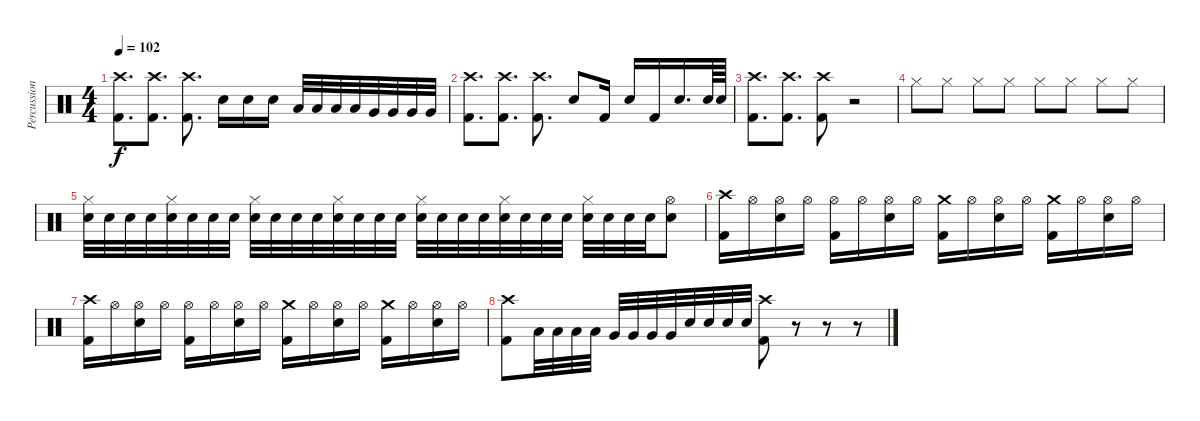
\track ("Percussion" "Percussion") {instrument percussion}
\staff {score}
\articulation defaults
\ts (4 4)
\tempo 102
\clef neutral
\ks c
("Crash high (hit)" "Kick (hit) 2").8{d dy f} ("Crash high (hit)" "Kick (hit) 2").8{d} ("Crash high (hit)" "Kick (hit) 2").8{d} "Snare (hit) 2".16 "Snare (hit) 2".16 "Snare (hit) 2".16 "Low Tom (hit)".32 "Low Tom (hit)".32 "Low Tom (hit)".32 "Low Tom (hit)".32 "Very Low Tom (hit)".32 "Very Low Tom (hit)".32 "Very Low Tom (hit)".32 "Very Low Tom (hit)".32 |
("Crash high (hit)" "Kick (hit) 2").8{d} ("Crash high (hit)" "Kick (hit) 2").8{d} ("Crash high (hit)" "Kick (hit) 2").8{d} "Snare (hit) 2".8 "Kick (hit) 2".16 "Snare (hit) 2".16 "Kick (hit) 2".16 "Snare (hit) 2".16{d} "Snare (hit) 2".64 "Snare (hit) 2".64 |
("Crash high (hit)" "Kick (hit) 2").8{d} ("Crash high (hit)" "Kick (hit) 2").8{d} ("Crash high (hit)" "Kick (hit) 2").8 r.2 |
"Hi-Hat (closed)".8 "Hi-Hat (closed)".8 "Hi-Hat (closed)".8 "Hi-Hat (closed)".8 "Hi-Hat (closed)".8 "Hi-Hat (closed)".8 "Hi-Hat (closed)".8 "Hi-Hat (closed)".8 |
("Hi-Hat (closed)" "Snare (hit) 2").32 "Snare (hit) 2".32 "Snare (hit) 2".32 "Snare (hit) 2".32 ("Hi-Hat (closed)" "Snare (hit) 2").32 "Snare (hit) 2".32 "Snare (hit) 2".32 "Snare (hit) 2".32 ("Hi-Hat (closed)" "Snare (hit) 2").32 "Snare (hit) 2".32 "Snare (hit) 2".32 "Snare (hit) 2".32 ("Hi-Hat (closed)" "Snare (hit) 2").32 "Snare (hit) 2".32 "Snare (hit) 2".32 "Snare (hit) 2".32 ("Hi-Hat (closed)" "Snare (hit) 2").32 "Snare (hit) 2".32 "Snare (hit) 2".32 "Snare (hit) 2".32 ("Hi-Hat (closed)" "Snare (hit) 2").32 "Snare (hit) 2".32 "Snare (hit) 2".32 "Snare (hit) 2".32 ("Hi-Hat (closed)" "Snare (hit) 2").32 "Snare (hit) 2".32 "Snare (hit) 2".32 "Snare (hit) 2".32 ("Hi-Hat (open)" "Snare (hit) 2").8 |
("Crash high (hit)" "Kick (hit) 2").16 "Hi-Hat (open)".16 ("Hi-Hat (open)" "Snare (hit) 2").16 "Hi-Hat (open)".16 ("Hi-Hat (open)" "Kick (hit) 2").16 "Hi-Hat (open)".16 ("Hi-Hat (open)" "Snare (hit) 2").16 "Hi-Hat (open)".16 ("Crash medium (hit)" "Kick (hit) 2").16 "Hi-Hat (open)".16 ("Hi-Hat (open)" "Snare (hit) 2").16 "Hi-Hat (open)".16 ("Crash medium (hit)" "Kick (hit) 2").16 "Hi-Hat (open)".16 ("Hi-Hat (open)" "Snare (hit) 2").16 "Hi-Hat (open)".16 |
("Crash high (hit)" "Kick (hit) 2").16 "Hi-Hat (open)".16 ("Hi-Hat (open)" "Snare (hit) 2").16 "Hi-Hat (open)".16 ("Hi-Hat (open)" "Kick (hit) 2").16 "Hi-Hat (open)".16 ("Hi-Hat (open)" "Snare (hit) 2").16 "Hi-Hat (open)".16 ("Crash medium (hit)" "Kick (hit) 2").16 "Hi-Hat (open)".16 ("Hi-Hat (open)" "Snare (hit) 2").16 "Hi-Hat (open)".16 ("Crash medium (hit)" "Kick (hit) 2").16 "Hi-Hat (open)".16 ("Hi-Hat (open)" "Snare (hit) 2").16 "Hi-Hat (open)".16 |
("Crash high (hit)" "Kick (hit) 2").8 "Low Tom (hit)".32 "Low Tom (hit)".32 "Low Tom (hit)".32 "Low Tom (hit)".32 "Very Low Tom (hit)".32 "Very Low Tom (hit)".32 "Very Low Tom (hit)".32 "Very Low Tom (hit)".32 "Snare (hit) 2".32 "Snare (hit) 2".32 "Snare (hit) 2".32 "Snare (hit) 2".32 ("Crash high (hit)" "Kick (hit) 2").8 r.8 r.8 r.8
